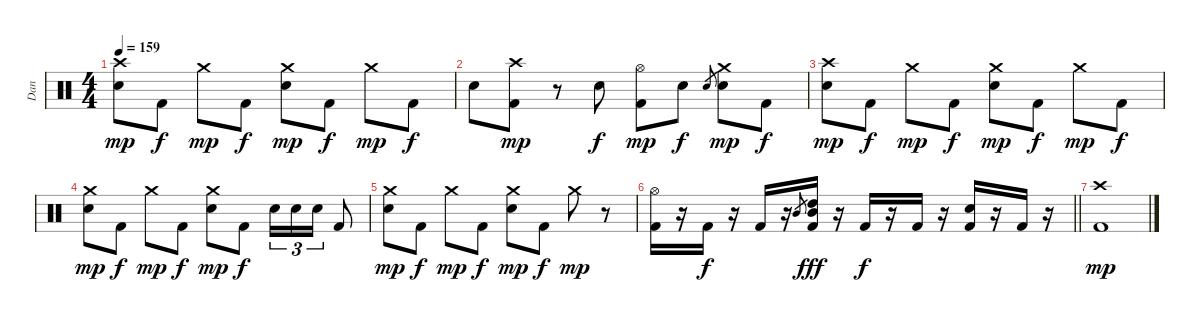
\track ("Dan" "Dan") {instrument percussion}
\staff {score}
\articulation defaults
\ts (4 4)
\tempo 159
\clef neutral
\ks c
("Crash high (hit)" "Snare (hit) 2").8{dy mp} "Kick (hit) 2".8{dy f} "Crash medium (hit)".8{dy mp} "Kick (hit) 2".8{dy f} ("Crash medium (hit)" "Snare (hit) 2").8{dy mp} "Kick (hit) 2".8{dy f} "Crash medium (hit)".8{dy mp} "Kick (hit) 2".8{dy f} |
"Snare (hit) 2".8 ("Crash high (hit)" "Kick (hit) 2").8{dy mp} r.8 "Snare (hit) 2".8{dy f} ("Hi-Hat (open)" "Kick (hit) 2").8{dy mp} "Snare (hit) 2".8{dy f} "Snare (hit) 2".8{gr} ("Crash medium (hit)" "Snare (hit) 2").8{dy mp} "Kick (hit) 2".8{dy f} |
("Crash high (hit)" "Snare (hit) 2").8{dy mp} "Kick (hit) 2".8{dy f} "Crash medium (hit)".8{dy mp} "Kick (hit) 2".8{dy f} ("Crash medium (hit)" "Snare (hit) 2").8{dy mp} "Kick (hit) 2".8{dy f} "Crash medium (hit)".8{dy mp} "Kick (hit) 2".8{dy f} |
("Crash medium (hit)" "Snare (hit) 2").8{dy mp} "Kick (hit) 2".8{dy f} "Crash medium (hit)".8{dy mp} "Kick (hit) 2".8{dy f} ("Crash medium (hit)" "Snare (hit) 2").8{dy mp} "Kick (hit) 2".8{dy f} "Snare (hit) 2".16{tu (3 2)} "Snare (hit) 2".16{tu (3 2)} "Snare (hit) 2".16{tu (3 2)} "Kick (hit) 2".8 |
("Crash medium (hit)" "Snare (hit) 2").8{dy mp} "Kick (hit) 2".8{dy f} "Crash medium (hit)".8{dy mp} "Kick (hit) 2".8{dy f} ("Crash medium (hit)" "Snare (hit) 2").8{dy mp} "Kick (hit) 2".8{dy f} "Crash medium (hit)".8{dy mp} r.8 |
\barLineRight lightlight
("Hi-Hat (open)" "Kick (hit) 2").16 r.16 "Kick (hit) 2".16{dy f} r.16 "Kick (hit) 2".16 r.16 "Mid Tom (hit)".8{gr} ("High Tom (hit)" "Mid Tom (hit)" "Kick (hit) 2").16{dy fff} r.16 "Kick (hit) 2".16{dy f} r.16 "Kick (hit) 2".16 r.16 ("Snare (hit) 2" "Kick (hit) 2").16 r.16 "Kick (hit) 2".16 r.16 |
("Crash high (hit)" "Kick (hit) 2").1{dy mp}
